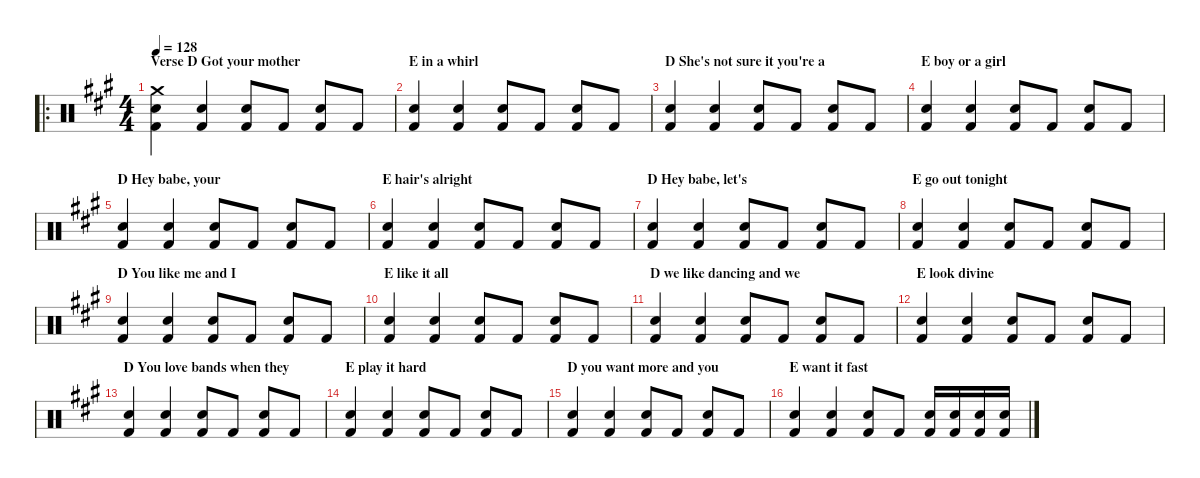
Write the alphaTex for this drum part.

\hideDynamics
\bracketExtendMode nobrackets
\singleTrackTrackNamePolicy hidden
\multiTrackTrackNamePolicy hidden
\firstSystemTrackNameMode fullname
\firstSystemTrackNameOrientation horizontal
\otherSystemsTrackNameOrientation horizontal
\track ("Drumkit" "Drums") {instrument percussion}
\staff {score}
\articulation defaults
\ro
\ts (4 4)
\section ("" "Verse D Got your mother")
\tempo 128
\clef neutral
\ks a
("Crash medium (hit)"{acc forcenatural} "Snare (hit) 2"{acc forcenatural} "Kick (hit) 2"{acc forcenatural}).4{dy f beam Down} ("Snare (hit) 2"{acc forcenatural} "Kick (hit) 2"{acc forcenatural}).4{beam Up} ("Snare (hit) 2"{acc forcenatural} "Kick (hit) 2"{acc forcenatural}).8{beam Up} "Kick (hit) 2"{acc forcenatural}.8{beam Up} ("Snare (hit) 2"{acc forcenatural} "Kick (hit) 2"{acc forcenatural}).8{beam Up} "Kick (hit) 2"{acc forcenatural}.8{beam Up} |
\section ("" "E in a whirl")
("Snare (hit) 2"{acc forcenatural} "Kick (hit) 2"{acc forcenatural}).4{beam Up} ("Snare (hit) 2"{acc forcenatural} "Kick (hit) 2"{acc forcenatural}).4{beam Up} ("Snare (hit) 2"{acc forcenatural} "Kick (hit) 2"{acc forcenatural}).8{beam Up} "Kick (hit) 2"{acc forcenatural}.8{beam Up} ("Snare (hit) 2"{acc forcenatural} "Kick (hit) 2"{acc forcenatural}).8{beam Up} "Kick (hit) 2"{acc forcenatural}.8{beam Up} |
\section ("" "D She's not sure it you're a")
("Snare (hit) 2"{acc forcenatural} "Kick (hit) 2"{acc forcenatural}).4{beam Up} ("Snare (hit) 2"{acc forcenatural} "Kick (hit) 2"{acc forcenatural}).4{beam Up} ("Snare (hit) 2"{acc forcenatural} "Kick (hit) 2"{acc forcenatural}).8{beam Up} "Kick (hit) 2"{acc forcenatural}.8{beam Up} ("Snare (hit) 2"{acc forcenatural} "Kick (hit) 2"{acc forcenatural}).8{beam Up} "Kick (hit) 2"{acc forcenatural}.8{beam Up} |
\section ("" "E boy or a girl")
("Snare (hit) 2"{acc forcenatural} "Kick (hit) 2"{acc forcenatural}).4{beam Up} ("Snare (hit) 2"{acc forcenatural} "Kick (hit) 2"{acc forcenatural}).4{beam Up} ("Snare (hit) 2"{acc forcenatural} "Kick (hit) 2"{acc forcenatural}).8{beam Up} "Kick (hit) 2"{acc forcenatural}.8{beam Up} ("Snare (hit) 2"{acc forcenatural} "Kick (hit) 2"{acc forcenatural}).8{beam Up} "Kick (hit) 2"{acc forcenatural}.8{beam Up} |
\section ("" "D Hey babe, your")
("Snare (hit) 2"{acc forcenatural} "Kick (hit) 2"{acc forcenatural}).4{beam Up} ("Snare (hit) 2"{acc forcenatural} "Kick (hit) 2"{acc forcenatural}).4{beam Up} ("Snare (hit) 2"{acc forcenatural} "Kick (hit) 2"{acc forcenatural}).8{beam Up} "Kick (hit) 2"{acc forcenatural}.8{beam Up} ("Snare (hit) 2"{acc forcenatural} "Kick (hit) 2"{acc forcenatural}).8{beam Up} "Kick (hit) 2"{acc forcenatural}.8{beam Up} |
\section ("" "E hair's alright")
("Snare (hit) 2"{acc forcenatural} "Kick (hit) 2"{acc forcenatural}).4{beam Up} ("Snare (hit) 2"{acc forcenatural} "Kick (hit) 2"{acc forcenatural}).4{beam Up} ("Snare (hit) 2"{acc forcenatural} "Kick (hit) 2"{acc forcenatural}).8{beam Up} "Kick (hit) 2"{acc forcenatural}.8{beam Up} ("Snare (hit) 2"{acc forcenatural} "Kick (hit) 2"{acc forcenatural}).8{beam Up} "Kick (hit) 2"{acc forcenatural}.8{beam Up} |
\section ("" "D Hey babe, let's")
("Snare (hit) 2"{acc forcenatural} "Kick (hit) 2"{acc forcenatural}).4{beam Up} ("Snare (hit) 2"{acc forcenatural} "Kick (hit) 2"{acc forcenatural}).4{beam Up} ("Snare (hit) 2"{acc forcenatural} "Kick (hit) 2"{acc forcenatural}).8{beam Up} "Kick (hit) 2"{acc forcenatural}.8{beam Up} ("Snare (hit) 2"{acc forcenatural} "Kick (hit) 2"{acc forcenatural}).8{beam Up} "Kick (hit) 2"{acc forcenatural}.8{beam Up} |
\section ("" "E go out tonight")
("Snare (hit) 2"{acc forcenatural} "Kick (hit) 2"{acc forcenatural}).4{beam Up} ("Snare (hit) 2"{acc forcenatural} "Kick (hit) 2"{acc forcenatural}).4{beam Up} ("Snare (hit) 2"{acc forcenatural} "Kick (hit) 2"{acc forcenatural}).8{beam Up} "Kick (hit) 2"{acc forcenatural}.8{beam Up} ("Snare (hit) 2"{acc forcenatural} "Kick (hit) 2"{acc forcenatural}).8{beam Up} "Kick (hit) 2"{acc forcenatural}.8{beam Up} |
\section ("" "D You like me and I")
("Snare (hit) 2"{acc forcenatural} "Kick (hit) 2"{acc forcenatural}).4{beam Up} ("Snare (hit) 2"{acc forcenatural} "Kick (hit) 2"{acc forcenatural}).4{beam Up} ("Snare (hit) 2"{acc forcenatural} "Kick (hit) 2"{acc forcenatural}).8{beam Up} "Kick (hit) 2"{acc forcenatural}.8{beam Up} ("Snare (hit) 2"{acc forcenatural} "Kick (hit) 2"{acc forcenatural}).8{beam Up} "Kick (hit) 2"{acc forcenatural}.8{beam Up} |
\section ("" "E like it all")
("Snare (hit) 2"{acc forcenatural} "Kick (hit) 2"{acc forcenatural}).4{beam Up} ("Snare (hit) 2"{acc forcenatural} "Kick (hit) 2"{acc forcenatural}).4{beam Up} ("Snare (hit) 2"{acc forcenatural} "Kick (hit) 2"{acc forcenatural}).8{beam Up} "Kick (hit) 2"{acc forcenatural}.8{beam Up} ("Snare (hit) 2"{acc forcenatural} "Kick (hit) 2"{acc forcenatural}).8{beam Up} "Kick (hit) 2"{acc forcenatural}.8{beam Up} |
\section ("" "D we like dancing and we")
("Snare (hit) 2"{acc forcenatural} "Kick (hit) 2"{acc forcenatural}).4{beam Up} ("Snare (hit) 2"{acc forcenatural} "Kick (hit) 2"{acc forcenatural}).4{beam Up} ("Snare (hit) 2"{acc forcenatural} "Kick (hit) 2"{acc forcenatural}).8{beam Up} "Kick (hit) 2"{acc forcenatural}.8{beam Up} ("Snare (hit) 2"{acc forcenatural} "Kick (hit) 2"{acc forcenatural}).8{beam Up} "Kick (hit) 2"{acc forcenatural}.8{beam Up} |
\section ("" "E look divine")
("Snare (hit) 2"{acc forcenatural} "Kick (hit) 2"{acc forcenatural}).4{beam Up} ("Snare (hit) 2"{acc forcenatural} "Kick (hit) 2"{acc forcenatural}).4{beam Up} ("Snare (hit) 2"{acc forcenatural} "Kick (hit) 2"{acc forcenatural}).8{beam Up} "Kick (hit) 2"{acc forcenatural}.8{beam Up} ("Snare (hit) 2"{acc forcenatural} "Kick (hit) 2"{acc forcenatural}).8{beam Up} "Kick (hit) 2"{acc forcenatural}.8{beam Up} |
\section ("" "D You love bands when they")
("Snare (hit) 2"{acc forcenatural} "Kick (hit) 2"{acc forcenatural}).4{beam Up} ("Snare (hit) 2"{acc forcenatural} "Kick (hit) 2"{acc forcenatural}).4{beam Up} ("Snare (hit) 2"{acc forcenatural} "Kick (hit) 2"{acc forcenatural}).8{beam Up} "Kick (hit) 2"{acc forcenatural}.8{beam Up} ("Snare (hit) 2"{acc forcenatural} "Kick (hit) 2"{acc forcenatural}).8{beam Up} "Kick (hit) 2"{acc forcenatural}.8{beam Up} |
\section ("" "E play it hard")
("Snare (hit) 2"{acc forcenatural} "Kick (hit) 2"{acc forcenatural}).4{beam Up} ("Snare (hit) 2"{acc forcenatural} "Kick (hit) 2"{acc forcenatural}).4{beam Up} ("Snare (hit) 2"{acc forcenatural} "Kick (hit) 2"{acc forcenatural}).8{beam Up} "Kick (hit) 2"{acc forcenatural}.8{beam Up} ("Snare (hit) 2"{acc forcenatural} "Kick (hit) 2"{acc forcenatural}).8{beam Up} "Kick (hit) 2"{acc forcenatural}.8{beam Up} |
\section ("" "D you want more and you")
("Snare (hit) 2"{acc forcenatural} "Kick (hit) 2"{acc forcenatural}).4{beam Up} ("Snare (hit) 2"{acc forcenatural} "Kick (hit) 2"{acc forcenatural}).4{beam Up} ("Snare (hit) 2"{acc forcenatural} "Kick (hit) 2"{acc forcenatural}).8{beam Up} "Kick (hit) 2"{acc forcenatural}.8{beam Up} ("Snare (hit) 2"{acc forcenatural} "Kick (hit) 2"{acc forcenatural}).8{beam Up} "Kick (hit) 2"{acc forcenatural}.8{beam Up} |
\section ("" "E want it fast")
("Snare (hit) 2"{acc forcenatural} "Kick (hit) 2"{acc forcenatural}).4{beam Up} ("Snare (hit) 2"{acc forcenatural} "Kick (hit) 2"{acc forcenatural}).4{beam Up} ("Snare (hit) 2"{acc forcenatural} "Kick (hit) 2"{acc forcenatural}).8{beam Up} "Kick (hit) 2"{acc forcenatural}.8{beam Up} ("Snare (hit) 2"{acc forcenatural} "Kick (hit) 2"{acc forcenatural}).16{beam Up} ("Snare (hit) 2"{acc forcenatural} "Kick (hit) 2"{acc forcenatural}).16{beam Up} ("Snare (hit) 2"{acc forcenatural} "Kick (hit) 2"{acc forcenatural}).16{beam Up} ("Snare (hit) 2"{acc forcenatural} "Kick (hit) 2"{acc forcenatural}).16{beam Up}
